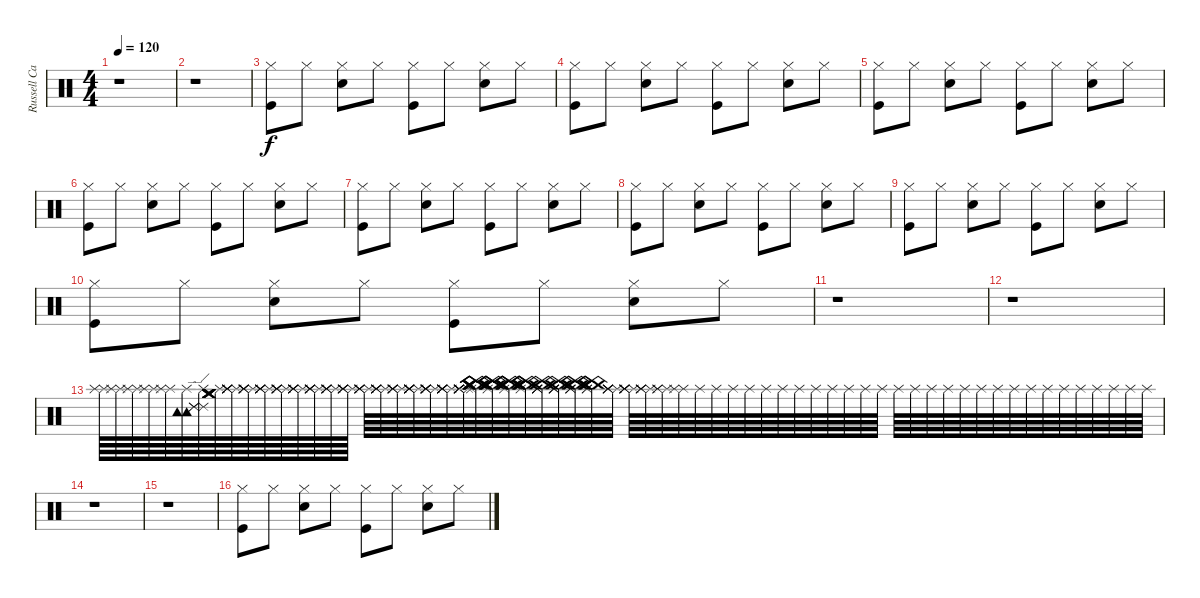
\track ("Russell Cannon" "Russell Ca") {instrument percussion}
\staff {score}
\articulation defaults
\ts (4 4)
\tempo 120
\clef neutral
\ks c
r.1{dy f} |
r.1 |
("Hi-Hat (closed)" "Kick (hit)").8 "Hi-Hat (closed)".8 ("Hi-Hat (closed)" "Electric Snare (hit)").8 "Hi-Hat (closed)".8 ("Hi-Hat (closed)" "Kick (hit)").8 "Hi-Hat (closed)".8 ("Hi-Hat (closed)" "Electric Snare (hit)").8 "Hi-Hat (closed)".8 |
("Hi-Hat (closed)" "Kick (hit)").8 "Hi-Hat (closed)".8 ("Hi-Hat (closed)" "Electric Snare (hit)").8 "Hi-Hat (closed)".8 ("Hi-Hat (closed)" "Kick (hit)").8 "Hi-Hat (closed)".8 ("Hi-Hat (closed)" "Electric Snare (hit)").8 "Hi-Hat (closed)".8 |
("Hi-Hat (closed)" "Kick (hit)").8 "Hi-Hat (closed)".8 ("Hi-Hat (closed)" "Electric Snare (hit)").8 "Hi-Hat (closed)".8 ("Hi-Hat (closed)" "Kick (hit)").8 "Hi-Hat (closed)".8 ("Hi-Hat (closed)" "Electric Snare (hit)").8 "Hi-Hat (closed)".8 |
("Hi-Hat (closed)" "Kick (hit)").8 "Hi-Hat (closed)".8 ("Hi-Hat (closed)" "Electric Snare (hit)").8 "Hi-Hat (closed)".8 ("Hi-Hat (closed)" "Kick (hit)").8 "Hi-Hat (closed)".8 ("Hi-Hat (closed)" "Electric Snare (hit)").8 "Hi-Hat (closed)".8 |
("Hi-Hat (closed)" "Kick (hit)").8 "Hi-Hat (closed)".8 ("Hi-Hat (closed)" "Electric Snare (hit)").8 "Hi-Hat (closed)".8 ("Hi-Hat (closed)" "Kick (hit)").8 "Hi-Hat (closed)".8 ("Hi-Hat (closed)" "Electric Snare (hit)").8 "Hi-Hat (closed)".8 |
("Hi-Hat (closed)" "Kick (hit)").8 "Hi-Hat (closed)".8 ("Hi-Hat (closed)" "Electric Snare (hit)").8 "Hi-Hat (closed)".8 ("Hi-Hat (closed)" "Kick (hit)").8 "Hi-Hat (closed)".8 ("Hi-Hat (closed)" "Electric Snare (hit)").8 "Hi-Hat (closed)".8 |
("Hi-Hat (closed)" "Kick (hit)").8 "Hi-Hat (closed)".8 ("Hi-Hat (closed)" "Electric Snare (hit)").8 "Hi-Hat (closed)".8 ("Hi-Hat (closed)" "Kick (hit)").8 "Hi-Hat (closed)".8 ("Hi-Hat (closed)" "Electric Snare (hit)").8 "Hi-Hat (closed)".8 |
("Hi-Hat (closed)" "Kick (hit)").8 "Hi-Hat (closed)".8 ("Hi-Hat (closed)" "Electric Snare (hit)").8 "Hi-Hat (closed)".8 ("Hi-Hat (closed)" "Kick (hit)").8 "Hi-Hat (closed)".8 ("Hi-Hat (closed)" "Electric Snare (hit)").8 "Hi-Hat (closed)".8 |
r.1 |
r.1 |
("Splash (hit)" "Splash (hit)").64 ("Splash (hit)" "Splash (hit)").64 ("Splash (hit)" "Splash (hit)").64 ("Splash (hit)" "Splash (hit)").64 ("Splash (hit)" "Splash (hit)").64 ("Splash (hit)" "Tambourine (hit)" "Tambourine (hit)").64 ("Splash (hit)" "Ride (edge) 2" "Ride (edge) 2" "Ride (edge) 2").64 ("Splash (hit)" "Crash medium (hit)" "Crash medium (hit)" "Crash medium (hit)" "Crash medium (hit)").64 ("Splash (hit)" "Splash (hit)" "Splash (hit)" "Splash (hit)" "Splash (hit)").64 ("Splash (hit)" "Splash (hit)" "Splash (hit)" "Splash (hit)" "Splash (hit)").64 ("Splash (hit)" "Splash (hit)" "Splash (hit)" "Splash (hit)" "Splash (hit)").64 ("Splash (hit)" "Splash (hit)" "Splash (hit)" "Splash (hit)" "Splash (hit)").64 ("Splash (hit)" "Splash (hit)" "Splash (hit)" "Splash (hit)" "Splash (hit)").64 ("Splash (hit)" "Splash (hit)" "Splash (hit)" "Splash (hit)" "Splash (hit)").64 ("Splash (hit)" "Splash (hit)" "Splash (hit)" "Splash (hit)" "Splash (hit)").64 ("Splash (hit)" "Splash (hit)" "Splash (hit)" "Splash (hit)" "Splash (hit)").64 ("Splash (hit)" "Splash (hit)" "Splash (hit)" "Splash (hit)" "Splash (hit)").64 ("Splash (hit)" "Splash (hit)" "Splash (hit)" "Splash (hit)" "Splash (hit)").64 ("Splash (hit)" "Splash (hit)" "Splash (hit)" "Splash (hit)" "Splash (hit)").64 ("Splash (hit)" "Splash (hit)" "Splash (hit)" "Splash (hit)" "Splash (hit)" "Splash (hit)").64 ("Splash (hit)" "Splash (hit)" "Splash (hit)" "Splash (hit)" "Splash (hit)" "Splash (hit)").64 ("Splash (hit)" "Splash (hit)" "Splash (hit)" "Splash (hit)" "Splash (hit)" "Splash (hit)").64 ("Splash (hit)" "Splash (hit)" "Splash (hit)" "Splash (hit)" "Splash (hit)" "Splash (hit)").64 ("Splash (hit)" "China (hit)" "China (hit)" "China (hit)" "China (hit)" "China (hit)").64 ("Splash (hit)" "China (hit)" "China (hit)" "China (hit)" "China (hit)" "China (hit)").64 ("Splash (hit)" "China (hit)" "China (hit)" "China (hit)" "China (hit)" "China (hit)").64 ("Splash (hit)" "China (hit)" "China (hit)" "China (hit)" "China (hit)" "China (hit)").64 ("Splash (hit)" "Splash (hit)" "Splash (hit)" "Splash (hit)" "China (hit)" "China (hit)").64 ("Splash (hit)" "Splash (hit)" "Splash (hit)" "Splash (hit)" "China (hit)" "China (hit)").64 ("Splash (hit)" "Splash (hit)" "Splash (hit)" "China (hit)" "China (hit)" "China (hit)").64 ("Splash (hit)" "Splash (hit)" "China (hit)" "China (hit)" "China (hit)" "China (hit)").64 ("Splash (hit)" "Splash (hit)" "Splash (hit)" "Splash (hit)" "Splash (hit)").64 ("Splash (hit)" "Splash (hit)" "Splash (hit)" "Splash (hit)" "Splash (hit)").64 ("Splash (hit)" "Splash (hit)" "Splash (hit)" "Splash (hit)").64 ("Splash (hit)" "Splash (hit)" "Splash (hit)").64 ("Splash (hit)" "Splash (hit)").64 "Splash (hit)".64 "Splash (hit)".64 "Splash (hit)".64 "Splash (hit)".64 "Splash (hit)".64 "Splash (hit)".64 "Splash (hit)".64 "Splash (hit)".64 "Splash (hit)".64 "Splash (hit)".64 "Splash (hit)".64 "Splash (hit)".64 "Splash (hit)".64 "Splash (hit)".64 "Splash (hit)".64 "Splash (hit)".64 "Splash (hit)".64 "Splash (hit)".64 "Splash (hit)".64 "Splash (hit)".64 "Splash (hit)".64 "Splash (hit)".64 "Splash (hit)".64 "Splash (hit)".64 "Splash (hit)".64 "Splash (hit)".64 "Splash (hit)".64 "Splash (hit)".64 |
r.1 |
r.1 |
("Hi-Hat (closed)" "Kick (hit)").8 "Hi-Hat (closed)".8 ("Hi-Hat (closed)" "Electric Snare (hit)").8 "Hi-Hat (closed)".8 ("Hi-Hat (closed)" "Kick (hit)").8 "Hi-Hat (closed)".8 ("Hi-Hat (closed)" "Electric Snare (hit)").8 "Hi-Hat (closed)".8
